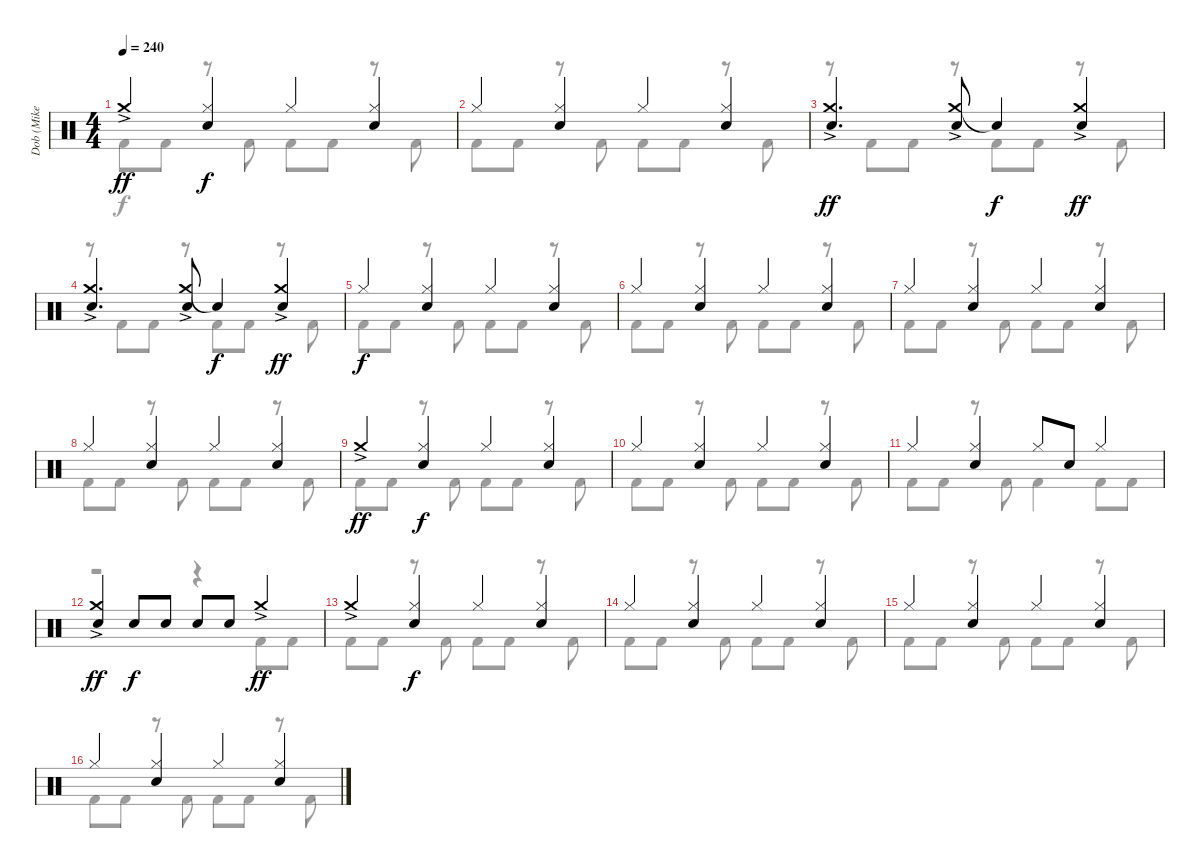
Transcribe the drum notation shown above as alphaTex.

\track ("Dob (Mike Terrana)" "Dob (Mike ") {instrument percussion}
\staff {score}
\articulation defaults
\voice
\ts (4 4)
\tempo 240
\clef neutral
\ks c "Crash medium (hit)"{ac}.4{dy ff}
("Hi-Hat (closed)" "Electric Snare (hit)").4{dy f} "Hi-Hat (closed)".4 ("Hi-Hat (closed)" "Electric Snare (hit)").4 |
"Hi-Hat (closed)".4 ("Hi-Hat (closed)" "Electric Snare (hit)").4 "Hi-Hat (closed)".4 ("Hi-Hat (closed)" "Electric Snare (hit)").4 |
("Crash medium (hit)"{ac} "Electric Snare (hit)").4{d dy ff} ("Crash medium (hit)"{ac} "Electric Snare (hit)").8 "Snare (hit)"{t}.4{dy f} ("Crash medium (hit)"{ac} "Electric Snare (hit)").4{dy ff} |
("Crash medium (hit)"{ac} "Electric Snare (hit)").4{d} ("Crash medium (hit)"{ac} "Electric Snare (hit)").8 "Snare (hit)"{t}.4{dy f} ("Crash medium (hit)"{ac} "Electric Snare (hit)").4{dy ff} |
"Hi-Hat (closed)".4{dy f} ("Hi-Hat (closed)" "Electric Snare (hit)").4 "Hi-Hat (closed)".4 ("Hi-Hat (closed)" "Electric Snare (hit)").4 |
"Hi-Hat (closed)".4 ("Hi-Hat (closed)" "Electric Snare (hit)").4 "Hi-Hat (closed)".4 ("Hi-Hat (closed)" "Electric Snare (hit)").4 |
"Hi-Hat (closed)".4 ("Hi-Hat (closed)" "Electric Snare (hit)").4 "Hi-Hat (closed)".4 ("Hi-Hat (closed)" "Electric Snare (hit)").4 |
"Hi-Hat (closed)".4 ("Hi-Hat (closed)" "Electric Snare (hit)").4 "Hi-Hat (closed)".4 ("Hi-Hat (closed)" "Electric Snare (hit)").4 |
"Crash medium (hit)"{ac}.4{dy ff} ("Hi-Hat (closed)" "Electric Snare (hit)").4{dy f} "Hi-Hat (closed)".4 ("Hi-Hat (closed)" "Electric Snare (hit)").4 |
"Hi-Hat (closed)".4 ("Hi-Hat (closed)" "Electric Snare (hit)").4 "Hi-Hat (closed)".4 ("Hi-Hat (closed)" "Electric Snare (hit)").4 |
"Hi-Hat (closed)".4 ("Hi-Hat (closed)" "Electric Snare (hit)").4 "Hi-Hat (closed)".8 "Electric Snare (hit)".8 "Hi-Hat (closed)".4 |
("Crash medium (hit)"{ac} "Electric Snare (hit)").4{dy ff} "Electric Snare (hit)".8{dy f} "Electric Snare (hit)".8 "Electric Snare (hit)".8 "Electric Snare (hit)".8 "Crash medium (hit)"{ac}.4{dy ff} |
"Crash medium (hit)"{ac}.4 ("Hi-Hat (closed)" "Electric Snare (hit)").4{dy f} "Hi-Hat (closed)".4 ("Hi-Hat (closed)" "Electric Snare (hit)").4 |
"Hi-Hat (closed)".4 ("Hi-Hat (closed)" "Electric Snare (hit)").4 "Hi-Hat (closed)".4 ("Hi-Hat (closed)" "Electric Snare (hit)").4 |
"Hi-Hat (closed)".4 ("Hi-Hat (closed)" "Electric Snare (hit)").4 "Hi-Hat (closed)".4 ("Hi-Hat (closed)" "Electric Snare (hit)").4 |
"Hi-Hat (closed)".4 ("Hi-Hat (closed)" "Electric Snare (hit)").4 "Hi-Hat (closed)".4 ("Hi-Hat (closed)" "Electric Snare (hit)").4
\voice
\clef neutral
\ottava regular
\simile none
\ks c "Kick (hit) 2".8{dy f} "Kick (hit) 2".8
r.8 "Kick (hit) 2".8 "Kick (hit) 2".8 "Kick (hit) 2".8 r.8 "Kick (hit) 2".8 |
"Kick (hit) 2".8 "Kick (hit) 2".8 r.8 "Kick (hit) 2".8 "Kick (hit) 2".8 "Kick (hit) 2".8 r.8 "Kick (hit) 2".8 |
r.8 "Kick (hit) 2".8{beam merge} "Kick (hit) 2".8 r.8 "Kick (hit) 2".8 "Kick (hit) 2".8 r.8 "Kick (hit) 2".8 |
r.8 "Kick (hit) 2".8{beam merge} "Kick (hit) 2".8 r.8 "Kick (hit) 2".8 "Kick (hit) 2".8 r.8 "Kick (hit) 2".8 |
"Kick (hit) 2".8 "Kick (hit) 2".8 r.8 "Kick (hit) 2".8 "Kick (hit) 2".8 "Kick (hit) 2".8 r.8 "Kick (hit) 2".8 |
"Kick (hit) 2".8 "Kick (hit) 2".8 r.8 "Kick (hit) 2".8 "Kick (hit) 2".8 "Kick (hit) 2".8 r.8 "Kick (hit) 2".8 |
"Kick (hit) 2".8 "Kick (hit) 2".8 r.8 "Kick (hit) 2".8 "Kick (hit) 2".8 "Kick (hit) 2".8 r.8 "Kick (hit) 2".8 |
"Kick (hit) 2".8 "Kick (hit) 2".8 r.8 "Kick (hit) 2".8 "Kick (hit) 2".8 "Kick (hit) 2".8 r.8 "Kick (hit) 2".8 |
"Kick (hit) 2".8 "Kick (hit) 2".8 r.8 "Kick (hit) 2".8 "Kick (hit) 2".8 "Kick (hit) 2".8 r.8 "Kick (hit) 2".8 |
"Kick (hit) 2".8 "Kick (hit) 2".8 r.8 "Kick (hit) 2".8 "Kick (hit) 2".8 "Kick (hit) 2".8 r.8 "Kick (hit) 2".8 |
"Kick (hit) 2".8 "Kick (hit) 2".8 r.8 "Kick (hit) 2".8 "Kick (hit) 2".4 "Kick (hit) 2".8 "Kick (hit) 2".8 |
r.2 r.4 "Kick (hit) 2".8 "Kick (hit) 2".8 |
"Kick (hit) 2".8 "Kick (hit) 2".8 r.8 "Kick (hit) 2".8 "Kick (hit) 2".8 "Kick (hit) 2".8 r.8 "Kick (hit) 2".8 |
"Kick (hit) 2".8 "Kick (hit) 2".8 r.8 "Kick (hit) 2".8 "Kick (hit) 2".8 "Kick (hit) 2".8 r.8 "Kick (hit) 2".8 |
"Kick (hit) 2".8 "Kick (hit) 2".8 r.8 "Kick (hit) 2".8 "Kick (hit) 2".8 "Kick (hit) 2".8 r.8 "Kick (hit) 2".8 |
"Kick (hit) 2".8 "Kick (hit) 2".8 r.8 "Kick (hit) 2".8 "Kick (hit) 2".8 "Kick (hit) 2".8 r.8 "Kick (hit) 2".8
